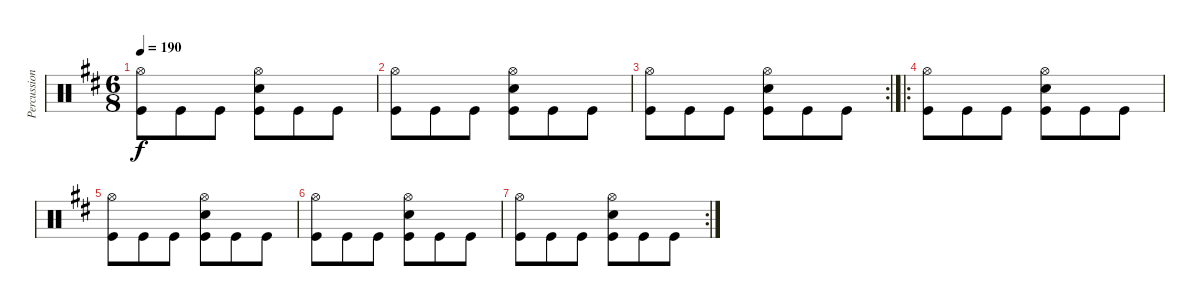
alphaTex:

\track ("Percussion" "Percussion") {instrument percussion}
\staff {score}
\articulation defaults
\ts (6 8)
\tempo 190
\clef neutral
\ks d
("Hi-Hat (open)" "Kick (hit)").8{dy f} "Kick (hit)".8 "Kick (hit)".8 ("Hi-Hat (open)" "Snare (hit) 2" "Kick (hit)").8 "Kick (hit)".8 "Kick (hit)".8 |
("Hi-Hat (open)" "Kick (hit)").8 "Kick (hit)".8 "Kick (hit)".8 ("Hi-Hat (open)" "Snare (hit) 2" "Kick (hit)").8 "Kick (hit)".8 "Kick (hit)".8 |
\rc 2
("Hi-Hat (open)" "Kick (hit)").8 "Kick (hit)".8 "Kick (hit)".8 ("Hi-Hat (open)" "Snare (hit) 2" "Kick (hit)").8 "Kick (hit)".8 "Kick (hit)".8 |
\ro
("Hi-Hat (open)" "Kick (hit)").8 "Kick (hit)".8 "Kick (hit)".8 ("Hi-Hat (open)" "Snare (hit) 2" "Kick (hit)").8 "Kick (hit)".8 "Kick (hit)".8 |
("Hi-Hat (open)" "Kick (hit)").8 "Kick (hit)".8 "Kick (hit)".8 ("Hi-Hat (open)" "Snare (hit) 2" "Kick (hit)").8 "Kick (hit)".8 "Kick (hit)".8 |
("Hi-Hat (open)" "Kick (hit)").8 "Kick (hit)".8 "Kick (hit)".8 ("Hi-Hat (open)" "Snare (hit) 2" "Kick (hit)").8 "Kick (hit)".8 "Kick (hit)".8 |
\rc 2
("Hi-Hat (open)" "Kick (hit)").8 "Kick (hit)".8 "Kick (hit)".8 ("Hi-Hat (open)" "Snare (hit) 2" "Kick (hit)").8 "Kick (hit)".8 "Kick (hit)".8
